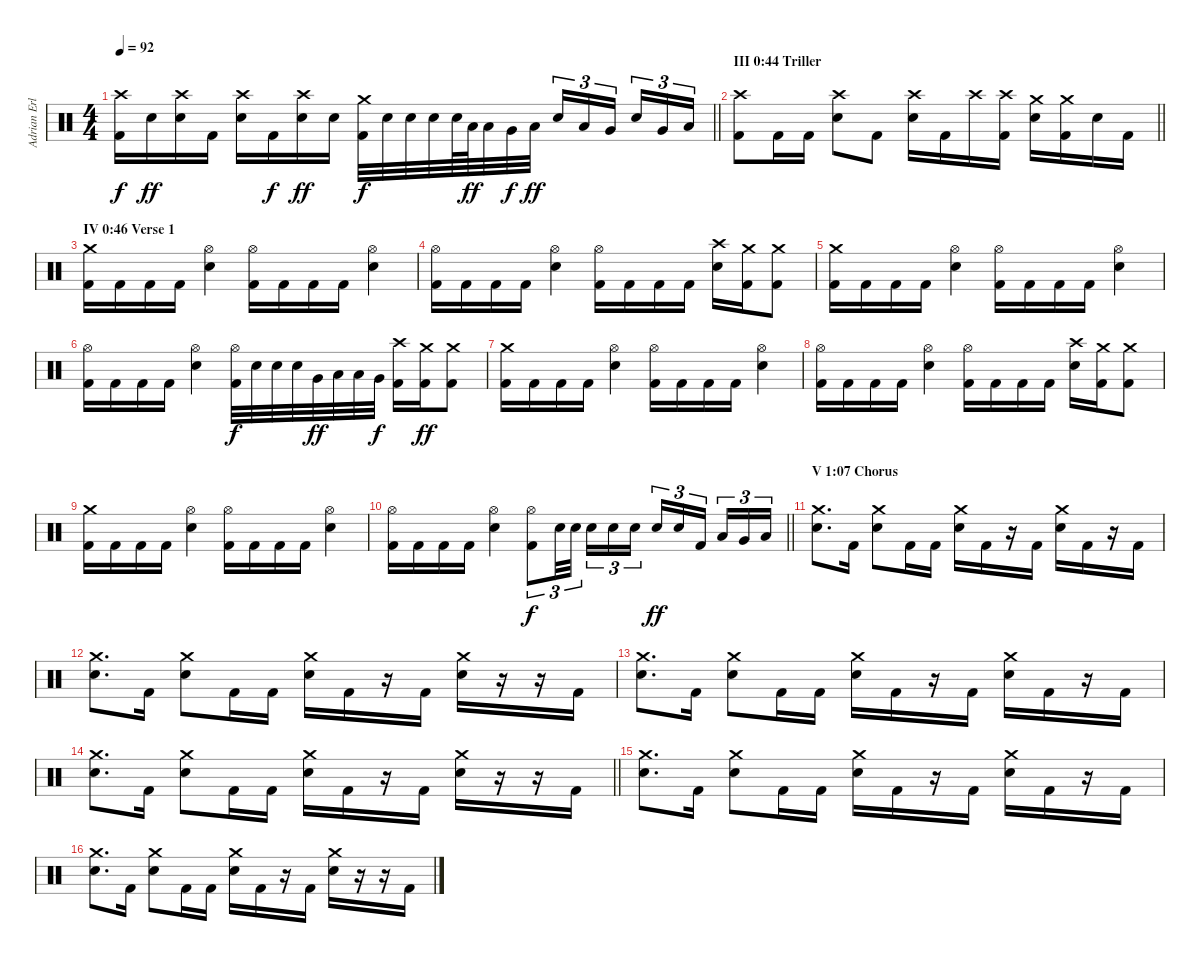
\track ("Adrian Erlandsson (drums)" "Adrian Erl") {instrument percussion}
\staff {score}
\articulation defaults
\ts (4 4)
\tempo 92
\clef neutral
\barLineRight lightlight
\ks c
("Crash high (hit)" "Kick (hit) 2").16{dy f} "Electric Snare (hit)".16{dy ff} ("Crash high (hit)" "Electric Snare (hit)").16 "Kick (hit) 2".16 ("Crash high (hit)" "Electric Snare (hit)").16 "Kick (hit) 2".16{dy f} ("Crash high (hit)" "Electric Snare (hit)").16{dy ff} "Electric Snare (hit)".16 ("Crash medium (hit)" "Kick (hit) 2").32{dy f} "Electric Snare (hit)".32 "Electric Snare (hit)".32 "Electric Snare (hit)".32 "Electric Snare (hit)".64 "Low Tom (hit)".64{dy ff} "Low Tom (hit)".32 "Very Low Tom (hit)".32{dy f} "Low Tom (hit)".32{dy ff} "Electric Snare (hit)".16{tu (3 2)} "Low Tom (hit)".16{tu (3 2)} "Very Low Tom (hit)".16{tu (3 2) beam splitsecondary} "Electric Snare (hit)".16{tu (3 2)} "Very Low Tom (hit)".16{tu (3 2)} "Low Floor Tom (hit)".16{tu (3 2)} |
\section ("" "III 0:44 Triller")
\barLineRight lightlight
("Crash high (hit)" "Kick (hit) 2").8 "Kick (hit) 2".16 "Kick (hit) 2".16 ("Crash high (hit)" "Electric Snare (hit)").8 "Kick (hit) 2".8 ("Crash high (hit)" "Electric Snare (hit)").16 "Kick (hit) 2".16 "Crash high (hit)".16 ("Crash high (hit)" "Kick (hit) 2").16 ("Crash medium (hit)" "Electric Snare (hit)").16 ("Crash medium (hit)" "Kick (hit) 2").16 "Electric Snare (hit)".16 "Kick (hit) 2".16 |
\section ("" "IV 0:46 Verse 1")
("Crash medium (hit)" "Kick (hit) 2").16 "Kick (hit) 2".16 "Kick (hit) 2".16 "Kick (hit) 2".16 ("Hi-Hat (open)" "Electric Snare (hit)").4 ("Hi-Hat (open)" "Kick (hit) 2").16 "Kick (hit) 2".16 "Kick (hit) 2".16 "Kick (hit) 2".16 ("Hi-Hat (open)" "Electric Snare (hit)").4 |
("Hi-Hat (open)" "Kick (hit) 2").16 "Kick (hit) 2".16 "Kick (hit) 2".16 "Kick (hit) 2".16 ("Hi-Hat (open)" "Electric Snare (hit)").4 ("Hi-Hat (open)" "Kick (hit) 2").16 "Kick (hit) 2".16 "Kick (hit) 2".16 "Kick (hit) 2".16 ("Crash high (hit)" "Electric Snare (hit)").16 ("Crash medium (hit)" "Kick (hit) 2").16 ("Crash medium (hit)" "Kick (hit) 2").8 |
("Crash medium (hit)" "Kick (hit) 2").16 "Kick (hit) 2".16 "Kick (hit) 2".16 "Kick (hit) 2".16 ("Hi-Hat (open)" "Electric Snare (hit)").4 ("Hi-Hat (open)" "Kick (hit) 2").16 "Kick (hit) 2".16 "Kick (hit) 2".16 "Kick (hit) 2".16 ("Hi-Hat (open)" "Electric Snare (hit)").4 |
("Hi-Hat (open)" "Kick (hit) 2").16 "Kick (hit) 2".16 "Kick (hit) 2".16 "Kick (hit) 2".16 ("Hi-Hat (open)" "Electric Snare (hit)").4 ("Hi-Hat (open)" "Kick (hit) 2").32{dy f} "Electric Snare (hit)".32 "Electric Snare (hit)".32 "Electric Snare (hit)".32 "Very Low Tom (hit)".32{dy ff} "Low Floor Tom (hit)".32 "Low Floor Tom (hit)".32 "Very Low Tom (hit)".32{dy f} ("Crash high (hit)" "Kick (hit) 2").16 ("Crash medium (hit)" "Kick (hit) 2").16{dy ff} ("Crash medium (hit)" "Kick (hit) 2").8 |
("Crash medium (hit)" "Kick (hit) 2").16 "Kick (hit) 2".16 "Kick (hit) 2".16 "Kick (hit) 2".16 ("Hi-Hat (open)" "Electric Snare (hit)").4 ("Hi-Hat (open)" "Kick (hit) 2").16 "Kick (hit) 2".16 "Kick (hit) 2".16 "Kick (hit) 2".16 ("Hi-Hat (open)" "Electric Snare (hit)").4 |
("Hi-Hat (open)" "Kick (hit) 2").16 "Kick (hit) 2".16 "Kick (hit) 2".16 "Kick (hit) 2".16 ("Hi-Hat (open)" "Electric Snare (hit)").4 ("Hi-Hat (open)" "Kick (hit) 2").16 "Kick (hit) 2".16 "Kick (hit) 2".16 "Kick (hit) 2".16 ("Crash high (hit)" "Electric Snare (hit)").16 ("Crash medium (hit)" "Kick (hit) 2").16 ("Crash medium (hit)" "Kick (hit) 2").8 |
("Crash medium (hit)" "Kick (hit) 2").16 "Kick (hit) 2".16 "Kick (hit) 2".16 "Kick (hit) 2".16 ("Hi-Hat (open)" "Electric Snare (hit)").4 ("Hi-Hat (open)" "Kick (hit) 2").16 "Kick (hit) 2".16 "Kick (hit) 2".16 "Kick (hit) 2".16 ("Hi-Hat (open)" "Electric Snare (hit)").4 |
\barLineRight lightlight
("Hi-Hat (open)" "Kick (hit) 2").16 "Kick (hit) 2".16 "Kick (hit) 2".16 "Kick (hit) 2".16 ("Hi-Hat (open)" "Electric Snare (hit)").4 ("Hi-Hat (open)" "Kick (hit) 2").8{tu (3 2) dy f} "Electric Snare (hit)".32{tu (3 2)} "Electric Snare (hit)".32{tu (3 2) beam splitsecondary} "Electric Snare (hit)".16{tu (3 2)} "Electric Snare (hit)".16{tu (3 2)} "Electric Snare (hit)".16{tu (3 2)} "Electric Snare (hit)".16{tu (3 2) dy ff} "Electric Snare (hit)".16{tu (3 2)} "Kick (hit) 2".16{tu (3 2) beam splitsecondary} "Low Tom (hit)".16{tu (3 2)} "Very Low Tom (hit)".16{tu (3 2)} "Low Floor Tom (hit)".16{tu (3 2)} |
\section ("" "V 1:07 Chorus")
("Crash medium (hit)" "Electric Snare (hit)").8{d} "Kick (hit) 2".16 ("Crash medium (hit)" "Electric Snare (hit)").8 "Kick (hit) 2".16 "Kick (hit) 2".16 ("Crash medium (hit)" "Electric Snare (hit)").16 "Kick (hit) 2".16 r.16 "Kick (hit) 2".16 ("Crash medium (hit)" "Electric Snare (hit)").16 "Kick (hit) 2".16 r.16 "Kick (hit) 2".16 |
("Crash medium (hit)" "Electric Snare (hit)").8{d} "Kick (hit) 2".16 ("Crash medium (hit)" "Electric Snare (hit)").8 "Kick (hit) 2".16 "Kick (hit) 2".16 ("Crash medium (hit)" "Electric Snare (hit)").16 "Kick (hit) 2".16 r.16 "Kick (hit) 2".16 ("Crash medium (hit)" "Electric Snare (hit)").16 r.16 r.16 "Kick (hit) 2".16 |
("Crash medium (hit)" "Electric Snare (hit)").8{d} "Kick (hit) 2".16 ("Crash medium (hit)" "Electric Snare (hit)").8 "Kick (hit) 2".16 "Kick (hit) 2".16 ("Crash medium (hit)" "Electric Snare (hit)").16 "Kick (hit) 2".16 r.16 "Kick (hit) 2".16 ("Crash medium (hit)" "Electric Snare (hit)").16 "Kick (hit) 2".16 r.16 "Kick (hit) 2".16 |
\barLineRight lightlight
("Crash medium (hit)" "Electric Snare (hit)").8{d} "Kick (hit) 2".16 ("Crash medium (hit)" "Electric Snare (hit)").8 "Kick (hit) 2".16 "Kick (hit) 2".16 ("Crash medium (hit)" "Electric Snare (hit)").16 "Kick (hit) 2".16 r.16 "Kick (hit) 2".16 ("Crash medium (hit)" "Electric Snare (hit)").16 r.16 r.16 "Kick (hit) 2".16 |
("Crash medium (hit)" "Electric Snare (hit)").8{d} "Kick (hit) 2".16 ("Crash medium (hit)" "Electric Snare (hit)").8 "Kick (hit) 2".16 "Kick (hit) 2".16 ("Crash medium (hit)" "Electric Snare (hit)").16 "Kick (hit) 2".16 r.16 "Kick (hit) 2".16 ("Crash medium (hit)" "Electric Snare (hit)").16 "Kick (hit) 2".16 r.16 "Kick (hit) 2".16 |
("Crash medium (hit)" "Electric Snare (hit)").8{d} "Kick (hit) 2".16 ("Crash medium (hit)" "Electric Snare (hit)").8 "Kick (hit) 2".16 "Kick (hit) 2".16 ("Crash medium (hit)" "Electric Snare (hit)").16 "Kick (hit) 2".16 r.16 "Kick (hit) 2".16 ("Crash medium (hit)" "Electric Snare (hit)").16 r.16 r.16 "Kick (hit) 2".16
